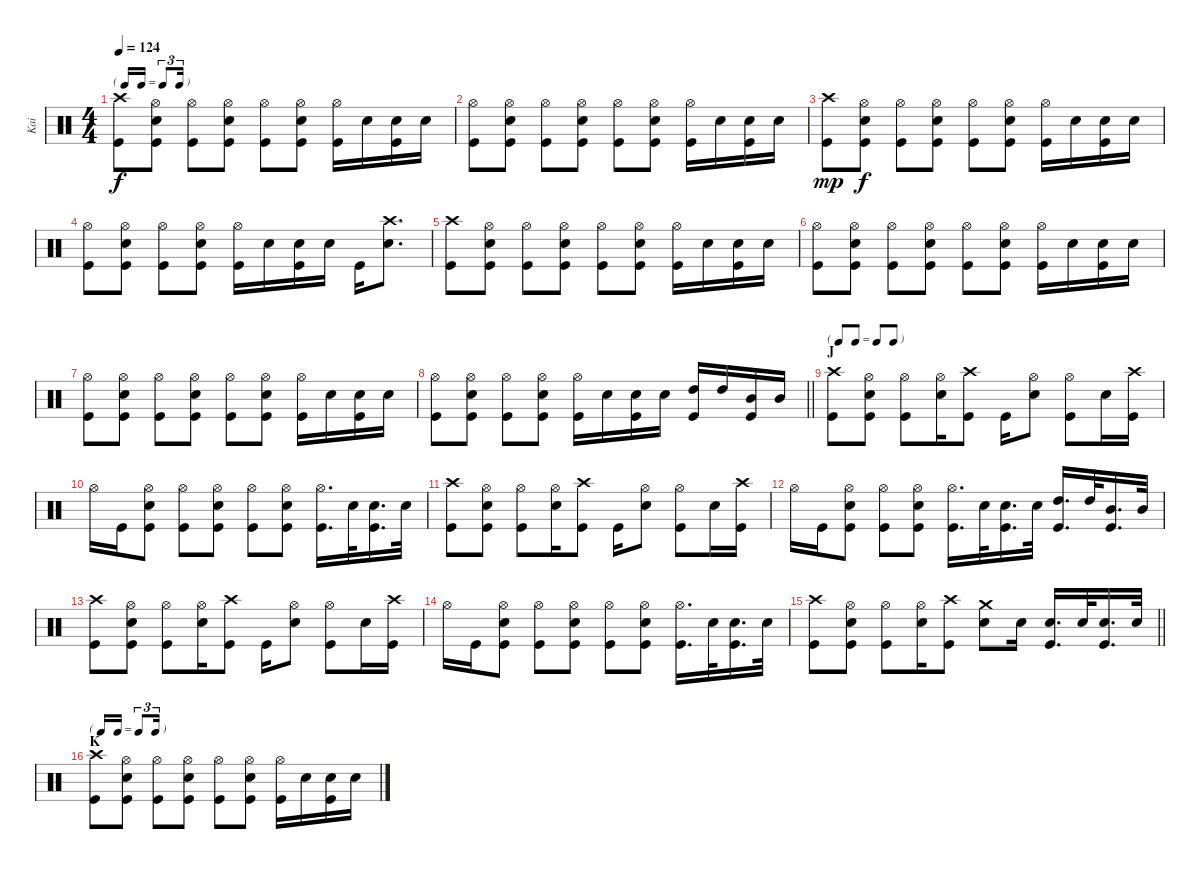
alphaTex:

\track ("Kai" "Kai") {instrument percussion}
\staff {score}
\articulation defaults
\ts (4 4)
\tf triplet16th
\section ("" "")
\tempo 124
\clef neutral
\ks c
("Kick (hit)" "Crash high (hit)").8{dy f} ("Hi-Hat (open)" "Snare (hit) 2" "Kick (hit)").8 ("Hi-Hat (open)" "Kick (hit)").8 ("Hi-Hat (open)" "Snare (hit) 2" "Kick (hit)").8 ("Kick (hit)" "Hi-Hat (open)").8 ("Snare (hit) 2" "Hi-Hat (open)" "Kick (hit)").8 ("Kick (hit)" "Hi-Hat (open)").16 "Snare (hit) 2".16 ("Snare (hit) 2" "Kick (hit)").16 "Snare (hit) 2".16 |
("Hi-Hat (open)" "Kick (hit)").8 ("Hi-Hat (open)" "Snare (hit) 2" "Kick (hit)").8 ("Hi-Hat (open)" "Kick (hit)").8 ("Hi-Hat (open)" "Snare (hit) 2" "Kick (hit)").8 ("Kick (hit)" "Hi-Hat (open)").8 ("Snare (hit) 2" "Hi-Hat (open)" "Kick (hit)").8 ("Kick (hit)" "Hi-Hat (open)").16 "Snare (hit) 2".16 ("Snare (hit) 2" "Kick (hit)").16 "Snare (hit) 2".16 |
("Crash high (hit)" "Kick (hit)").8{dy mp} ("Hi-Hat (open)" "Snare (hit) 2" "Kick (hit)").8{dy f} ("Hi-Hat (open)" "Kick (hit)").8 ("Hi-Hat (open)" "Snare (hit) 2" "Kick (hit)").8 ("Kick (hit)" "Hi-Hat (open)").8 ("Snare (hit) 2" "Hi-Hat (open)" "Kick (hit)").8 ("Kick (hit)" "Hi-Hat (open)").16 "Snare (hit) 2".16 ("Snare (hit) 2" "Kick (hit)").16 "Snare (hit) 2".16 |
("Hi-Hat (open)" "Kick (hit)").8 ("Hi-Hat (open)" "Snare (hit) 2" "Kick (hit)").8 ("Hi-Hat (open)" "Kick (hit)").8 ("Hi-Hat (open)" "Snare (hit) 2" "Kick (hit)").8 ("Kick (hit)" "Hi-Hat (open)").16 "Snare (hit) 2".16 ("Snare (hit) 2" "Kick (hit)").16 "Snare (hit) 2".16 "Kick (hit)".16 ("Snare (hit) 2" "Crash high (hit)").8{d} |
("Kick (hit)" "Crash high (hit)").8 ("Hi-Hat (open)" "Snare (hit) 2" "Kick (hit)").8 ("Hi-Hat (open)" "Kick (hit)").8 ("Hi-Hat (open)" "Snare (hit) 2" "Kick (hit)").8 ("Kick (hit)" "Hi-Hat (open)").8 ("Snare (hit) 2" "Hi-Hat (open)" "Kick (hit)").8 ("Kick (hit)" "Hi-Hat (open)").16 "Snare (hit) 2".16 ("Snare (hit) 2" "Kick (hit)").16 "Snare (hit) 2".16 |
("Hi-Hat (open)" "Kick (hit)").8 ("Hi-Hat (open)" "Snare (hit) 2" "Kick (hit)").8 ("Hi-Hat (open)" "Kick (hit)").8 ("Hi-Hat (open)" "Snare (hit) 2" "Kick (hit)").8 ("Kick (hit)" "Hi-Hat (open)").8 ("Snare (hit) 2" "Hi-Hat (open)" "Kick (hit)").8 ("Kick (hit)" "Hi-Hat (open)").16 "Snare (hit) 2".16 ("Snare (hit) 2" "Kick (hit)").16 "Snare (hit) 2".16 |
("Hi-Hat (open)" "Kick (hit)").8 ("Hi-Hat (open)" "Snare (hit) 2" "Kick (hit)").8 ("Hi-Hat (open)" "Kick (hit)").8 ("Hi-Hat (open)" "Snare (hit) 2" "Kick (hit)").8 ("Kick (hit)" "Hi-Hat (open)").8 ("Snare (hit) 2" "Hi-Hat (open)" "Kick (hit)").8 ("Kick (hit)" "Hi-Hat (open)").16 "Snare (hit) 2".16 ("Snare (hit) 2" "Kick (hit)").16 "Snare (hit) 2".16 |
\barLineRight lightlight
("Hi-Hat (open)" "Kick (hit)").8 ("Hi-Hat (open)" "Snare (hit) 2" "Kick (hit)").8 ("Hi-Hat (open)" "Kick (hit)").8 ("Hi-Hat (open)" "Snare (hit) 2" "Kick (hit)").8 ("Kick (hit)" "Hi-Hat (open)").16 "Snare (hit) 2".16 ("Snare (hit) 2" "Kick (hit)").16 "Snare (hit) 2".16 ("Kick (hit)" "High Tom (hit)").16 "High Tom (hit)".16 ("Kick (hit)" "Mid Tom (hit)").16 "Mid Tom (hit)".16 |
\tf none
\section ("" "J")
("Kick (hit)" "Crash high (hit)").8 ("Hi-Hat (open)" "Snare (hit) 2" "Kick (hit)").8 ("Hi-Hat (open)" "Kick (hit)").8 ("Hi-Hat (open)" "Snare (hit) 2").16 ("Kick (hit)" "Crash high (hit)").8 "Kick (hit)".16 ("Snare (hit) 2" "Hi-Hat (open)").8 ("Kick (hit)" "Hi-Hat (open)").8 "Snare (hit) 2".16 ("Crash high (hit)" "Kick (hit)").16 |
"Hi-Hat (open)".16 "Kick (hit)".16 ("Snare (hit) 2" "Hi-Hat (open)" "Kick (hit)").8 ("Hi-Hat (open)" "Kick (hit)").8 ("Kick (hit)" "Hi-Hat (open)" "Snare (hit) 2").8 ("Hi-Hat (open)" "Kick (hit)").8 ("Snare (hit) 2" "Kick (hit)" "Hi-Hat (open)").8 ("Kick (hit)" "Hi-Hat (open)").16{d beam merge} "Snare (hit) 2".32 ("Snare (hit) 2" "Kick (hit)").16{d} "Snare (hit) 2".32 |
("Kick (hit)" "Crash high (hit)").8 ("Hi-Hat (open)" "Snare (hit) 2" "Kick (hit)").8 ("Hi-Hat (open)" "Kick (hit)").8 ("Hi-Hat (open)" "Snare (hit) 2").16 ("Kick (hit)" "Crash high (hit)").8 "Kick (hit)".16 ("Snare (hit) 2" "Hi-Hat (open)").8 ("Kick (hit)" "Hi-Hat (open)").8 "Snare (hit) 2".16 ("Crash high (hit)" "Kick (hit)").16 |
"Hi-Hat (open)".16 "Kick (hit)".16 ("Snare (hit) 2" "Hi-Hat (open)" "Kick (hit)").8 ("Hi-Hat (open)" "Kick (hit)").8 ("Kick (hit)" "Hi-Hat (open)" "Snare (hit) 2").8 ("Kick (hit)" "Hi-Hat (open)").16{d} "Snare (hit) 2".32 ("Snare (hit) 2" "Kick (hit)").16{d} "Snare (hit) 2".32 ("Kick (hit)" "High Tom (hit)").16{d} "High Tom (hit)".32 ("Kick (hit)" "Mid Tom (hit)").16{d} "Mid Tom (hit)".32 |
("Kick (hit)" "Crash high (hit)").8 ("Hi-Hat (open)" "Snare (hit) 2" "Kick (hit)").8 ("Hi-Hat (open)" "Kick (hit)").8 ("Hi-Hat (open)" "Snare (hit) 2").16 ("Kick (hit)" "Crash high (hit)").8 "Kick (hit)".16 ("Snare (hit) 2" "Hi-Hat (open)").8 ("Kick (hit)" "Hi-Hat (open)").8 "Snare (hit) 2".16 ("Crash high (hit)" "Kick (hit)").16 |
"Hi-Hat (open)".16 "Kick (hit)".16 ("Snare (hit) 2" "Hi-Hat (open)" "Kick (hit)").8 ("Hi-Hat (open)" "Kick (hit)").8 ("Kick (hit)" "Hi-Hat (open)" "Snare (hit) 2").8 ("Hi-Hat (open)" "Kick (hit)").8 ("Snare (hit) 2" "Kick (hit)" "Hi-Hat (open)").8 ("Kick (hit)" "Hi-Hat (open)").16{d beam merge} "Snare (hit) 2".32 ("Snare (hit) 2" "Kick (hit)").16{d} "Snare (hit) 2".32 |
\barLineRight lightlight
("Kick (hit)" "Crash high (hit)").8 ("Hi-Hat (open)" "Snare (hit) 2" "Kick (hit)").8 ("Hi-Hat (open)" "Kick (hit)").8 ("Hi-Hat (open)" "Snare (hit) 2").16 ("Kick (hit)" "Crash high (hit)").8 ("Snare (hit) 2" "Crash medium (hit)").8 "Snare (hit) 2".16 ("Kick (hit)" "Snare (hit) 2").16{d} "Snare (hit) 2".32 ("Snare (hit) 2" "Kick (hit)").16{d} "Snare (hit) 2".32 |
\tf triplet16th
\section ("" "K")
("Kick (hit)" "Crash high (hit)").8 ("Hi-Hat (open)" "Snare (hit) 2" "Kick (hit)").8 ("Hi-Hat (open)" "Kick (hit)").8 ("Hi-Hat (open)" "Snare (hit) 2" "Kick (hit)").8 ("Kick (hit)" "Hi-Hat (open)").8 ("Snare (hit) 2" "Hi-Hat (open)" "Kick (hit)").8 ("Kick (hit)" "Hi-Hat (open)").16 "Snare (hit) 2".16 ("Snare (hit) 2" "Kick (hit)").16 "Snare (hit) 2".16
